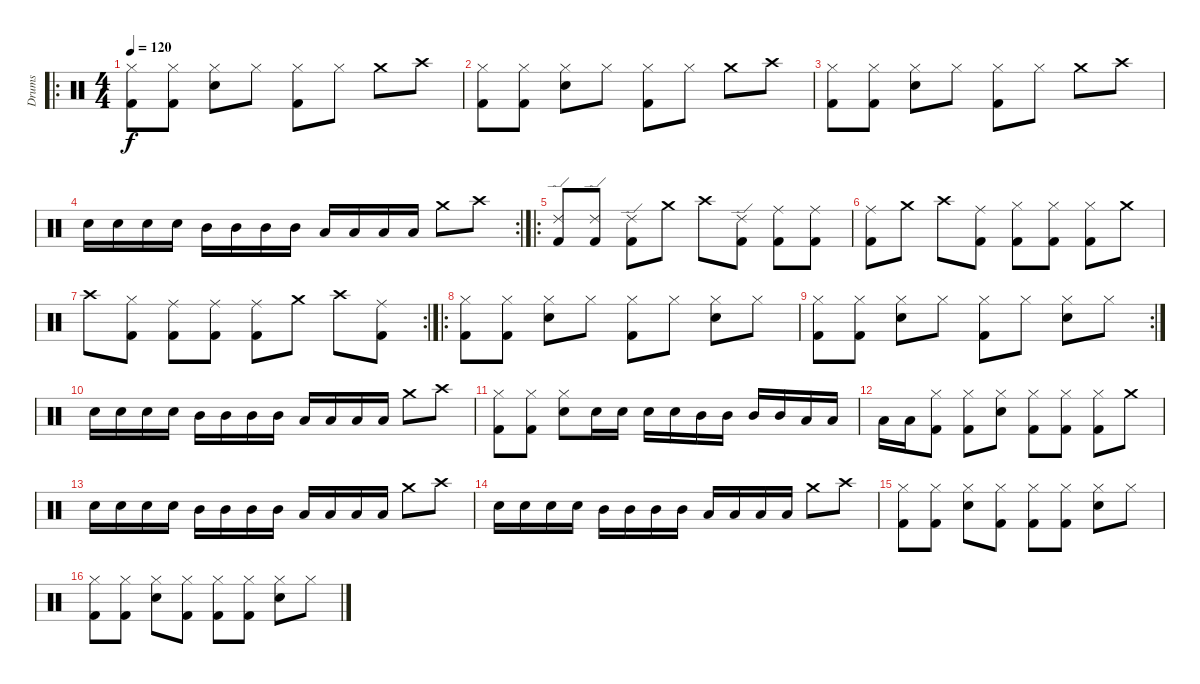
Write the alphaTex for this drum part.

\track ("Drums" "Drums") {instrument percussion}
\staff {score}
\articulation defaults
\ro
\ts (4 4)
\tempo 120
\clef neutral
\ks c
("Kick (hit) 2" "Hi-Hat (closed)").8{dy f} ("Kick (hit) 2" "Hi-Hat (closed)").8 ("Snare (hit) 2" "Hi-Hat (closed)").8 "Hi-Hat (closed)".8 ("Kick (hit) 2" "Hi-Hat (closed)").8 "Hi-Hat (closed)".8 "Crash medium (hit)".8 "Crash high (hit)".8 |
("Kick (hit) 2" "Hi-Hat (closed)").8 ("Kick (hit) 2" "Hi-Hat (closed)").8 ("Snare (hit) 2" "Hi-Hat (closed)").8 "Hi-Hat (closed)".8 ("Kick (hit) 2" "Hi-Hat (closed)").8 "Hi-Hat (closed)".8 "Crash medium (hit)".8 "Crash high (hit)".8 |
("Kick (hit) 2" "Hi-Hat (closed)").8 ("Kick (hit) 2" "Hi-Hat (closed)").8 ("Snare (hit) 2" "Hi-Hat (closed)").8 "Hi-Hat (closed)".8 ("Kick (hit) 2" "Hi-Hat (closed)").8 "Hi-Hat (closed)".8 "Crash medium (hit)".8 "Crash high (hit)".8 |
\rc 2 "Snare (hit) 2".16 "Snare (hit) 2".16 "Snare (hit) 2".16 "Snare (hit) 2".16 "Mid Tom (hit)".16 "Mid Tom (hit)".16 "Mid Tom (hit)".16 "Mid Tom (hit)".16 "Low Tom (hit)".16 "Low Tom (hit)".16 "Low Tom (hit)".16 "Low Tom (hit)".16 "Crash medium (hit)".8 "Crash high (hit)".8
|
\ro
("Kick (hit) 2" "Ride (edge) 2").8 ("Kick (hit) 2" "Ride (edge) 2").8 ("Kick (hit) 2" "Ride (edge) 2").8 "Crash medium (hit)".8 "Crash high (hit)".8 ("Kick (hit) 2" "Ride (edge) 2").8 ("Kick (hit) 2" "Ride (middle)").8 ("Kick (hit) 2" "Ride (middle)").8 |
("Kick (hit) 2" "Ride (middle)").8 "Crash medium (hit)".8 "Crash high (hit)".8 ("Kick (hit) 2" "Ride (middle)").8 ("Kick (hit) 2" "Hi-Hat (closed)").8 ("Kick (hit) 2" "Hi-Hat (closed)").8 ("Kick (hit) 2" "Hi-Hat (closed)").8 "Crash medium (hit)".8 |
\rc 2 "Crash high (hit)".8
("Kick (hit) 2" "Hi-Hat (closed)").8 ("Kick (hit) 2" "Ride (middle)").8 ("Kick (hit) 2" "Ride (middle)").8 ("Kick (hit) 2" "Ride (middle)").8 "Crash medium (hit)".8 "Crash high (hit)".8 ("Kick (hit) 2" "Ride (middle)").8 |
\ro
("Kick (hit) 2" "Hi-Hat (closed)").8 ("Kick (hit) 2" "Hi-Hat (closed)").8 ("Snare (hit) 2" "Hi-Hat (closed)").8 "Hi-Hat (closed)".8 ("Kick (hit) 2" "Hi-Hat (closed)").8 "Hi-Hat (closed)".8 ("Snare (hit) 2" "Hi-Hat (closed)").8 "Hi-Hat (closed)".8 |
\rc 2
("Kick (hit) 2" "Hi-Hat (closed)").8 ("Kick (hit) 2" "Hi-Hat (closed)").8 ("Snare (hit) 2" "Hi-Hat (closed)").8 "Hi-Hat (closed)".8 ("Kick (hit) 2" "Hi-Hat (closed)").8 "Hi-Hat (closed)".8 ("Snare (hit) 2" "Hi-Hat (closed)").8 "Hi-Hat (closed)".8 |
"Snare (hit) 2".16 "Snare (hit) 2".16 "Snare (hit) 2".16 "Snare (hit) 2".16 "Mid Tom (hit)".16 "Mid Tom (hit)".16 "Mid Tom (hit)".16 "Mid Tom (hit)".16 "Low Tom (hit)".16 "Low Tom (hit)".16 "Low Tom (hit)".16 "Low Tom (hit)".16 "Crash medium (hit)".8 "Crash high (hit)".8 |
("Kick (hit) 2" "Hi-Hat (closed)").8 ("Kick (hit) 2" "Hi-Hat (closed)").8 ("Snare (hit) 2" "Hi-Hat (closed)").8 "Snare (hit) 2".16 "Snare (hit) 2".16 "Snare (hit) 2".16 "Snare (hit) 2".16 "Mid Tom (hit)".16 "Mid Tom (hit)".16 "Mid Tom (hit)".16 "Mid Tom (hit)".16 "Low Tom (hit)".16 "Low Tom (hit)".16 |
"Low Tom (hit)".16 "Low Tom (hit)".16 ("Kick (hit) 2" "Hi-Hat (closed)").8 ("Kick (hit) 2" "Hi-Hat (closed)").8 ("Snare (hit) 2" "Hi-Hat (closed)").8 ("Kick (hit) 2" "Hi-Hat (closed)").8 ("Kick (hit) 2" "Hi-Hat (closed)").8 ("Kick (hit) 2" "Hi-Hat (closed)").8 "Crash medium (hit)".8 |
"Snare (hit) 2".16 "Snare (hit) 2".16 "Snare (hit) 2".16 "Snare (hit) 2".16 "Mid Tom (hit)".16 "Mid Tom (hit)".16 "Mid Tom (hit)".16 "Mid Tom (hit)".16 "Low Tom (hit)".16 "Low Tom (hit)".16 "Low Tom (hit)".16 "Low Tom (hit)".16 "Crash medium (hit)".8 "Crash high (hit)".8 |
"Snare (hit) 2".16 "Snare (hit) 2".16 "Snare (hit) 2".16 "Snare (hit) 2".16 "Mid Tom (hit)".16 "Mid Tom (hit)".16 "Mid Tom (hit)".16 "Mid Tom (hit)".16 "Low Tom (hit)".16 "Low Tom (hit)".16 "Low Tom (hit)".16 "Low Tom (hit)".16 "Crash medium (hit)".8 "Crash high (hit)".8 |
("Kick (hit) 2" "Hi-Hat (closed)").8 ("Kick (hit) 2" "Hi-Hat (closed)").8 ("Snare (hit) 2" "Hi-Hat (closed)").8 ("Kick (hit) 2" "Hi-Hat (closed)").8 ("Kick (hit) 2" "Hi-Hat (closed)").8 ("Kick (hit) 2" "Hi-Hat (closed)").8 ("Snare (hit) 2" "Hi-Hat (closed)").8 "Hi-Hat (closed)".8 |
("Kick (hit) 2" "Hi-Hat (closed)").8 ("Kick (hit) 2" "Hi-Hat (closed)").8 ("Snare (hit) 2" "Hi-Hat (closed)").8 ("Kick (hit) 2" "Hi-Hat (closed)").8 ("Kick (hit) 2" "Hi-Hat (closed)").8 ("Kick (hit) 2" "Hi-Hat (closed)").8 ("Snare (hit) 2" "Hi-Hat (closed)").8 "Hi-Hat (closed)".8
